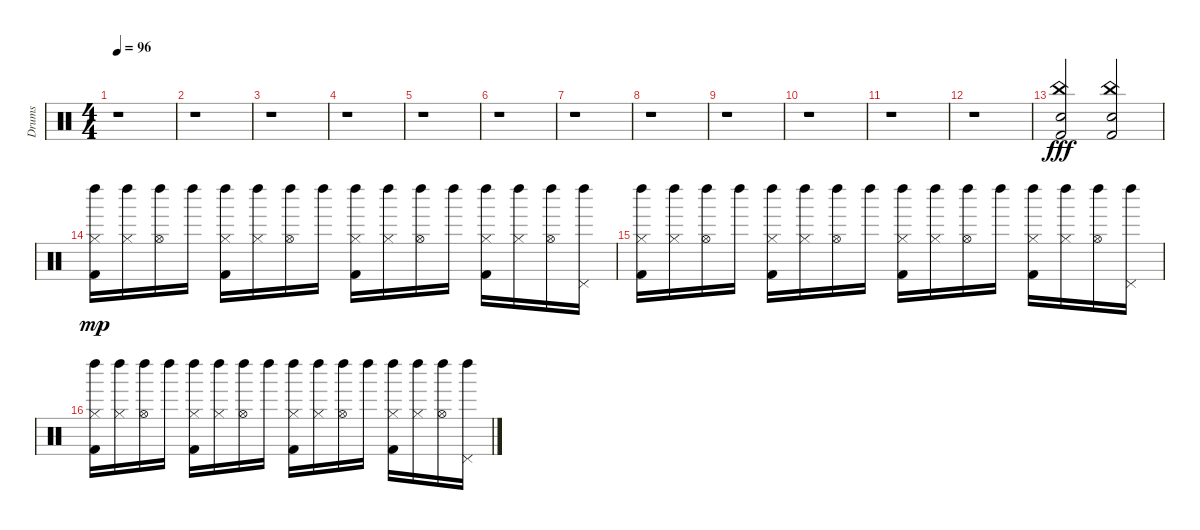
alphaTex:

\track ("Drums" "Drums") {instrument percussion}
\staff {score}
\articulation defaults
\ts (4 4)
\tempo 96
\clef neutral
\ks c
r.1{dy fff} |
r.1 |
r.1 |
r.1 |
r.1 |
r.1 |
r.1 |
r.1 |
r.1 |
r.1 |
r.1 |
r.1 |
("Kick (hit) 2" "China (hit)" "Electric Snare (hit)").2 ("Kick (hit) 2" "China (hit)" "Electric Snare (hit)").2 |
("Kick (hit) 2" "Hi-Hat (closed)" "Left Maraca (hit)").16{dy mp} ("Hi-Hat (closed)" "Left Maraca (hit)").16 ("Hi-Hat (open)" "Left Maraca (hit)").16 "Left Maraca (hit)".16 ("Kick (hit) 2" "Hi-Hat (closed)" "Left Maraca (hit)").16 ("Hi-Hat (closed)" "Left Maraca (hit)").16 ("Hi-Hat (open)" "Left Maraca (hit)").16 "Left Maraca (hit)".16 ("Kick (hit) 2" "Hi-Hat (closed)" "Left Maraca (hit)").16 ("Hi-Hat (closed)" "Left Maraca (hit)").16 ("Hi-Hat (open)" "Left Maraca (hit)").16 "Left Maraca (hit)".16 ("Kick (hit) 2" "Hi-Hat (closed)" "Left Maraca (hit)").16 ("Hi-Hat (closed)" "Left Maraca (hit)").16 ("Hi-Hat (open)" "Left Maraca (hit)").16 ("Pedal Hi-Hat (hit)" "Left Maraca (hit)").16 |
("Kick (hit) 2" "Hi-Hat (closed)" "Left Maraca (hit)").16 ("Hi-Hat (closed)" "Left Maraca (hit)").16 ("Hi-Hat (open)" "Left Maraca (hit)").16 "Left Maraca (hit)".16 ("Kick (hit) 2" "Hi-Hat (closed)" "Left Maraca (hit)").16 ("Hi-Hat (closed)" "Left Maraca (hit)").16 ("Hi-Hat (open)" "Left Maraca (hit)").16 "Left Maraca (hit)".16 ("Kick (hit) 2" "Hi-Hat (closed)" "Left Maraca (hit)").16 ("Hi-Hat (closed)" "Left Maraca (hit)").16 ("Hi-Hat (open)" "Left Maraca (hit)").16 "Left Maraca (hit)".16 ("Kick (hit) 2" "Hi-Hat (closed)" "Left Maraca (hit)").16 ("Hi-Hat (closed)" "Left Maraca (hit)").16 ("Hi-Hat (open)" "Left Maraca (hit)").16 ("Pedal Hi-Hat (hit)" "Left Maraca (hit)").16 |
("Kick (hit) 2" "Hi-Hat (closed)" "Left Maraca (hit)").16 ("Hi-Hat (closed)" "Left Maraca (hit)").16 ("Hi-Hat (open)" "Left Maraca (hit)").16 "Left Maraca (hit)".16 ("Kick (hit) 2" "Hi-Hat (closed)" "Left Maraca (hit)").16 ("Hi-Hat (closed)" "Left Maraca (hit)").16 ("Hi-Hat (open)" "Left Maraca (hit)").16 "Left Maraca (hit)".16 ("Kick (hit) 2" "Hi-Hat (closed)" "Left Maraca (hit)").16 ("Hi-Hat (closed)" "Left Maraca (hit)").16 ("Hi-Hat (open)" "Left Maraca (hit)").16 "Left Maraca (hit)".16 ("Kick (hit) 2" "Hi-Hat (closed)" "Left Maraca (hit)").16 ("Hi-Hat (closed)" "Left Maraca (hit)").16 ("Hi-Hat (open)" "Left Maraca (hit)").16 ("Pedal Hi-Hat (hit)" "Left Maraca (hit)").16
